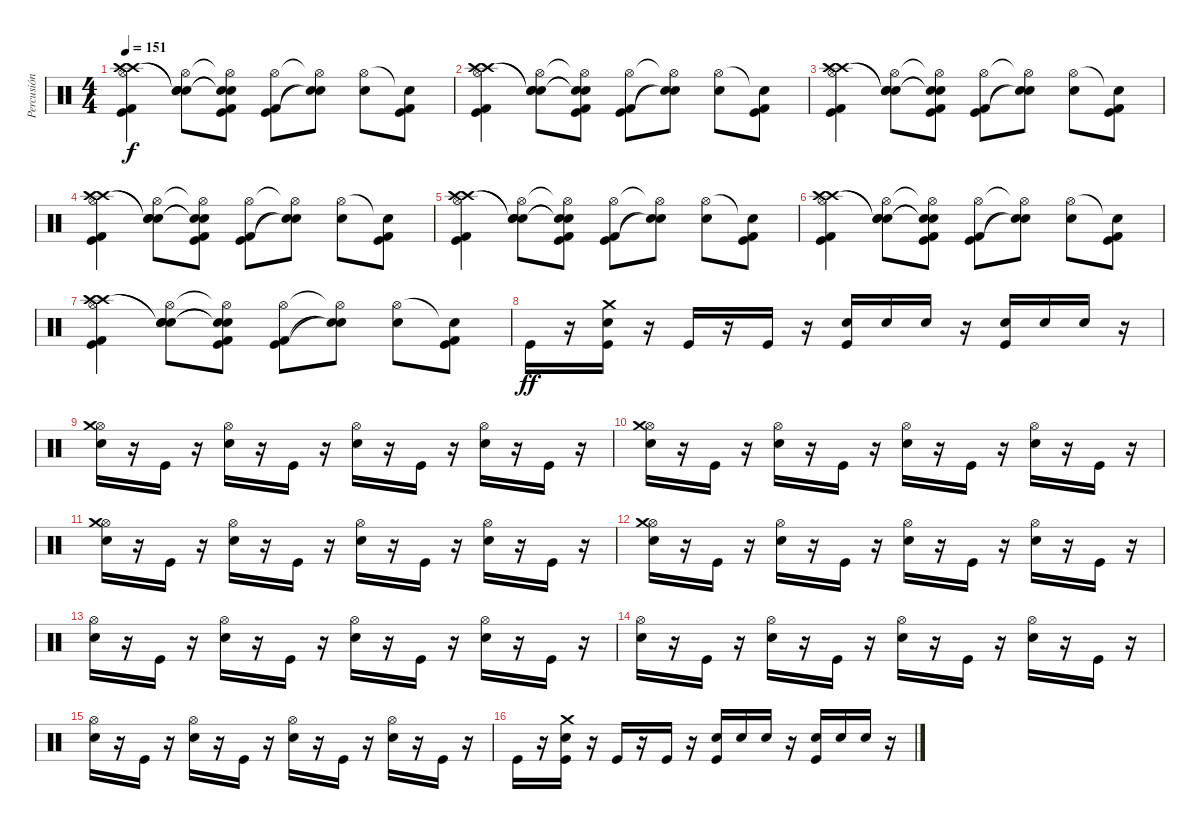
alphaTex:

\track ("Percusión" "Percusión") {instrument percussion}
\staff {score}
\articulation defaults
\ts (4 4)
\tempo 151
\clef neutral
\ks c
("Hi-Hat (open)" "Crash high (hit)" "Crash high (hit)" "Kick (hit)" "Kick (hit) 2").4{dy f} ("Hi-Hat (open)" "Snare (hit)"{t} "Snare (hit)"{t} "Electric Snare (hit)").8 ("Hi-Hat (open)"{t} "Snare (hit)"{t} "Snare (hit)"{t} "Kick (hit)" "Kick (hit) 2").8 ("Hi-Hat (open)" "Kick (hit)" "Kick (hit) 2").8 ("Hi-Hat (open)"{t} "Electric Snare (hit)"{t} "Snare (hit)"{t}).8 ("Hi-Hat (open)" "Electric Snare (hit)").8 ("Snare (hit)"{t} "Kick (hit)" "Kick (hit) 2").8 |
("Hi-Hat (open)" "Crash high (hit)" "Crash high (hit)" "Kick (hit)" "Kick (hit) 2").4 ("Hi-Hat (open)" "Snare (hit)"{t} "Snare (hit)"{t} "Electric Snare (hit)").8 ("Hi-Hat (open)"{t} "Snare (hit)"{t} "Snare (hit)"{t} "Kick (hit)" "Kick (hit) 2").8 ("Hi-Hat (open)" "Kick (hit)" "Kick (hit) 2").8 ("Hi-Hat (open)"{t} "Electric Snare (hit)"{t} "Snare (hit)"{t}).8 ("Hi-Hat (open)" "Electric Snare (hit)").8 ("Snare (hit)"{t} "Kick (hit)" "Kick (hit) 2").8 |
("Hi-Hat (open)" "Crash high (hit)" "Crash high (hit)" "Kick (hit)" "Kick (hit) 2").4 ("Hi-Hat (open)" "Snare (hit)"{t} "Snare (hit)"{t} "Electric Snare (hit)").8 ("Hi-Hat (open)"{t} "Snare (hit)"{t} "Snare (hit)"{t} "Kick (hit)" "Kick (hit) 2").8 ("Hi-Hat (open)" "Kick (hit)" "Kick (hit) 2").8 ("Hi-Hat (open)"{t} "Electric Snare (hit)"{t} "Snare (hit)"{t}).8 ("Hi-Hat (open)" "Electric Snare (hit)").8 ("Snare (hit)"{t} "Kick (hit)" "Kick (hit) 2").8 |
("Hi-Hat (open)" "Crash high (hit)" "Crash high (hit)" "Kick (hit)" "Kick (hit) 2").4 ("Hi-Hat (open)" "Snare (hit)"{t} "Snare (hit)"{t} "Electric Snare (hit)").8 ("Hi-Hat (open)"{t} "Snare (hit)"{t} "Snare (hit)"{t} "Kick (hit)" "Kick (hit) 2").8 ("Hi-Hat (open)" "Kick (hit)" "Kick (hit) 2").8 ("Hi-Hat (open)"{t} "Electric Snare (hit)"{t} "Snare (hit)"{t}).8 ("Hi-Hat (open)" "Electric Snare (hit)").8 ("Snare (hit)"{t} "Kick (hit)" "Kick (hit) 2").8 |
("Hi-Hat (open)" "Crash high (hit)" "Crash high (hit)" "Kick (hit)" "Kick (hit) 2").4 ("Hi-Hat (open)" "Snare (hit)"{t} "Snare (hit)"{t} "Electric Snare (hit)").8 ("Hi-Hat (open)"{t} "Snare (hit)"{t} "Snare (hit)"{t} "Kick (hit)" "Kick (hit) 2").8 ("Hi-Hat (open)" "Kick (hit)" "Kick (hit) 2").8 ("Hi-Hat (open)"{t} "Electric Snare (hit)"{t} "Snare (hit)"{t}).8 ("Hi-Hat (open)" "Electric Snare (hit)").8 ("Snare (hit)"{t} "Kick (hit)" "Kick (hit) 2").8 |
("Hi-Hat (open)" "Crash high (hit)" "Crash high (hit)" "Kick (hit)" "Kick (hit) 2").4 ("Hi-Hat (open)" "Snare (hit)"{t} "Snare (hit)"{t} "Electric Snare (hit)").8 ("Hi-Hat (open)"{t} "Snare (hit)"{t} "Snare (hit)"{t} "Kick (hit)" "Kick (hit) 2").8 ("Hi-Hat (open)" "Kick (hit)" "Kick (hit) 2").8 ("Hi-Hat (open)"{t} "Electric Snare (hit)"{t} "Snare (hit)"{t}).8 ("Hi-Hat (open)" "Electric Snare (hit)").8 ("Snare (hit)"{t} "Kick (hit)" "Kick (hit) 2").8 |
("Hi-Hat (open)" "Crash high (hit)" "Crash high (hit)" "Kick (hit)" "Kick (hit) 2").4 ("Hi-Hat (open)" "Snare (hit)"{t} "Snare (hit)"{t} "Electric Snare (hit)").8 ("Hi-Hat (open)"{t} "Snare (hit)"{t} "Snare (hit)"{t} "Kick (hit)" "Kick (hit) 2").8 ("Hi-Hat (open)" "Kick (hit)" "Kick (hit) 2").8 ("Hi-Hat (open)"{t} "Electric Snare (hit)"{t} "Snare (hit)"{t}).8 ("Hi-Hat (open)" "Electric Snare (hit)").8 ("Snare (hit)"{t} "Kick (hit)" "Kick (hit) 2").8 |
"Kick (hit)".16{dy ff} r.16 ("Kick (hit)" "Snare (hit) 2" "Crash medium (hit)").16 r.16 "Kick (hit)".16 r.16 "Kick (hit)".16 r.16 ("Kick (hit)" "Snare (hit) 2").16 "Snare (hit) 2".16 "Snare (hit) 2".16 r.16 ("Kick (hit)" "Snare (hit) 2").16 "Snare (hit) 2".16 "Snare (hit) 2".16 r.16 |
("Snare (hit) 2" "Hi-Hat (open)" "Crash medium (hit)").16 r.16 "Kick (hit)".16 r.16 ("Snare (hit) 2" "Hi-Hat (open)").16 r.16 "Kick (hit)".16 r.16 ("Snare (hit) 2" "Hi-Hat (open)").16 r.16 "Kick (hit)".16 r.16 ("Snare (hit) 2" "Hi-Hat (open)").16 r.16 "Kick (hit)".16 r.16 |
("Snare (hit) 2" "Hi-Hat (open)" "Crash medium (hit)").16 r.16 "Kick (hit)".16 r.16 ("Snare (hit) 2" "Hi-Hat (open)").16 r.16 "Kick (hit)".16 r.16 ("Snare (hit) 2" "Hi-Hat (open)").16 r.16 "Kick (hit)".16 r.16 ("Snare (hit) 2" "Hi-Hat (open)").16 r.16 "Kick (hit)".16 r.16 |
("Snare (hit) 2" "Hi-Hat (open)" "Crash medium (hit)").16 r.16 "Kick (hit)".16 r.16 ("Snare (hit) 2" "Hi-Hat (open)").16 r.16 "Kick (hit)".16 r.16 ("Snare (hit) 2" "Hi-Hat (open)").16 r.16 "Kick (hit)".16 r.16 ("Snare (hit) 2" "Hi-Hat (open)").16 r.16 "Kick (hit)".16 r.16 |
("Snare (hit) 2" "Hi-Hat (open)" "Crash medium (hit)").16 r.16 "Kick (hit)".16 r.16 ("Snare (hit) 2" "Hi-Hat (open)").16 r.16 "Kick (hit)".16 r.16 ("Snare (hit) 2" "Hi-Hat (open)").16 r.16 "Kick (hit)".16 r.16 ("Snare (hit) 2" "Hi-Hat (open)").16 r.16 "Kick (hit)".16 r.16 |
("Snare (hit) 2" "Hi-Hat (open)").16 r.16 "Kick (hit)".16 r.16 ("Snare (hit) 2" "Hi-Hat (open)").16 r.16 "Kick (hit)".16 r.16 ("Snare (hit) 2" "Hi-Hat (open)").16 r.16 "Kick (hit)".16 r.16 ("Snare (hit) 2" "Hi-Hat (open)").16 r.16 "Kick (hit)".16 r.16 |
("Snare (hit) 2" "Hi-Hat (open)").16 r.16 "Kick (hit)".16 r.16 ("Snare (hit) 2" "Hi-Hat (open)").16 r.16 "Kick (hit)".16 r.16 ("Snare (hit) 2" "Hi-Hat (open)").16 r.16 "Kick (hit)".16 r.16 ("Snare (hit) 2" "Hi-Hat (open)").16 r.16 "Kick (hit)".16 r.16 |
("Snare (hit) 2" "Hi-Hat (open)").16 r.16 "Kick (hit)".16 r.16 ("Snare (hit) 2" "Hi-Hat (open)").16 r.16 "Kick (hit)".16 r.16 ("Snare (hit) 2" "Hi-Hat (open)").16 r.16 "Kick (hit)".16 r.16 ("Snare (hit) 2" "Hi-Hat (open)").16 r.16 "Kick (hit)".16 r.16 |
"Kick (hit)".16 r.16 ("Kick (hit)" "Snare (hit) 2" "Crash medium (hit)").16 r.16 "Kick (hit)".16 r.16 "Kick (hit)".16 r.16 ("Kick (hit)" "Snare (hit) 2").16 "Snare (hit) 2".16 "Snare (hit) 2".16 r.16 ("Kick (hit)" "Snare (hit) 2").16 "Snare (hit) 2".16 "Snare (hit) 2".16 r.16
